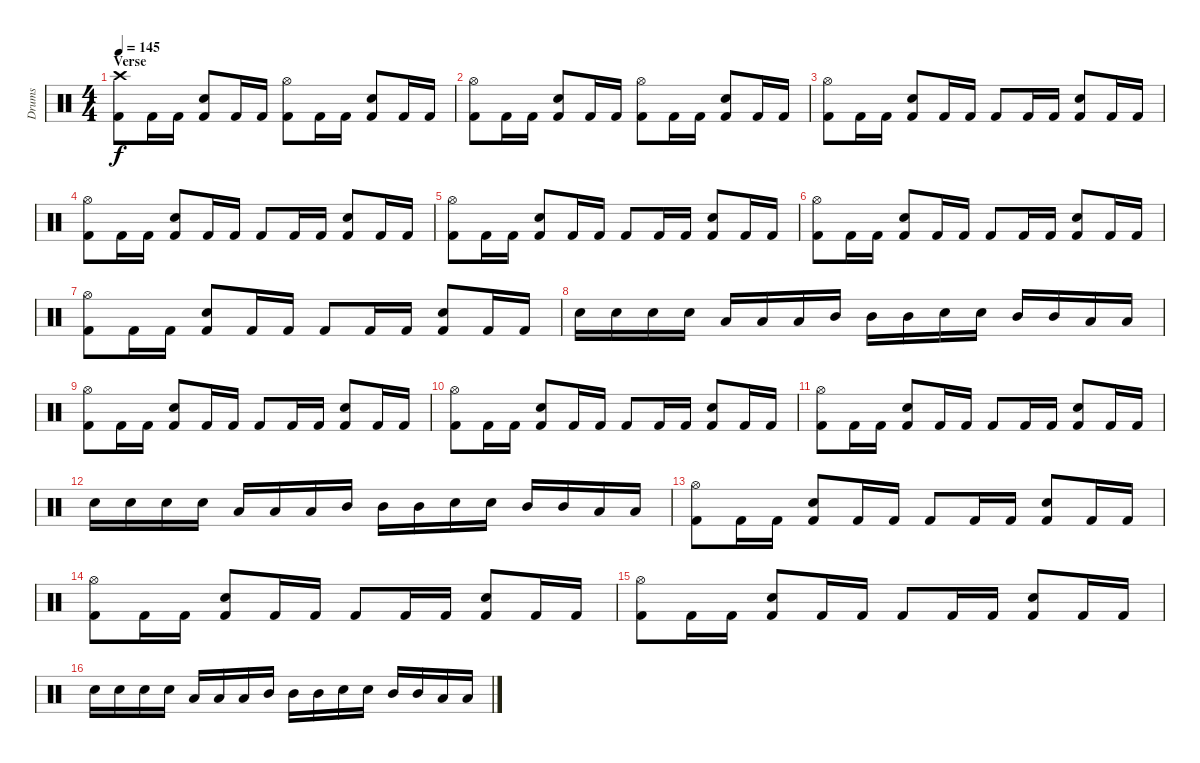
\track ("Drums" "Drums") {instrument percussion}
\staff {score}
\articulation defaults
\ts (4 4)
\section ("" "Verse")
\tempo 145
\clef neutral
\ks c
("Crash high (hit)" "Kick (hit) 2").8{dy f} "Kick (hit) 2".16 "Kick (hit) 2".16 ("Electric Snare (hit)" "Kick (hit) 2").8 "Kick (hit) 2".16 "Kick (hit) 2".16 ("Hi-Hat (open)" "Kick (hit) 2").8 "Kick (hit) 2".16 "Kick (hit) 2".16 ("Electric Snare (hit)" "Kick (hit) 2").8 "Kick (hit) 2".16 "Kick (hit) 2".16 |
("Hi-Hat (open)" "Kick (hit) 2").8 "Kick (hit) 2".16 "Kick (hit) 2".16 ("Electric Snare (hit)" "Kick (hit) 2").8 "Kick (hit) 2".16 "Kick (hit) 2".16 ("Hi-Hat (open)" "Kick (hit) 2").8 "Kick (hit) 2".16 "Kick (hit) 2".16 ("Electric Snare (hit)" "Kick (hit) 2").8 "Kick (hit) 2".16 "Kick (hit) 2".16 |
("Hi-Hat (open)" "Kick (hit) 2").8 "Kick (hit) 2".16 "Kick (hit) 2".16 ("Electric Snare (hit)" "Kick (hit) 2").8 "Kick (hit) 2".16 "Kick (hit) 2".16 "Kick (hit) 2".8 "Kick (hit) 2".16 "Kick (hit) 2".16 ("Electric Snare (hit)" "Kick (hit) 2").8 "Kick (hit) 2".16 "Kick (hit) 2".16 |
("Hi-Hat (open)" "Kick (hit) 2").8 "Kick (hit) 2".16 "Kick (hit) 2".16 ("Electric Snare (hit)" "Kick (hit) 2").8 "Kick (hit) 2".16 "Kick (hit) 2".16 "Kick (hit) 2".8 "Kick (hit) 2".16 "Kick (hit) 2".16 ("Electric Snare (hit)" "Kick (hit) 2").8 "Kick (hit) 2".16 "Kick (hit) 2".16 |
("Hi-Hat (open)" "Kick (hit) 2").8 "Kick (hit) 2".16 "Kick (hit) 2".16 ("Electric Snare (hit)" "Kick (hit) 2").8 "Kick (hit) 2".16 "Kick (hit) 2".16 "Kick (hit) 2".8 "Kick (hit) 2".16 "Kick (hit) 2".16 ("Electric Snare (hit)" "Kick (hit) 2").8 "Kick (hit) 2".16 "Kick (hit) 2".16 |
("Hi-Hat (open)" "Kick (hit) 2").8 "Kick (hit) 2".16 "Kick (hit) 2".16 ("Electric Snare (hit)" "Kick (hit) 2").8 "Kick (hit) 2".16 "Kick (hit) 2".16 "Kick (hit) 2".8 "Kick (hit) 2".16 "Kick (hit) 2".16 ("Electric Snare (hit)" "Kick (hit) 2").8 "Kick (hit) 2".16 "Kick (hit) 2".16 |
("Hi-Hat (open)" "Kick (hit) 2").8 "Kick (hit) 2".16 "Kick (hit) 2".16 ("Electric Snare (hit)" "Kick (hit) 2").8 "Kick (hit) 2".16 "Kick (hit) 2".16 "Kick (hit) 2".8 "Kick (hit) 2".16 "Kick (hit) 2".16 ("Electric Snare (hit)" "Kick (hit) 2").8 "Kick (hit) 2".16 "Kick (hit) 2".16 |
"Electric Snare (hit)".16 "Electric Snare (hit)".16 "Electric Snare (hit)".16 "Electric Snare (hit)".16 "Low Tom (hit)".16 "Low Tom (hit)".16 "Low Tom (hit)".16 "Mid Tom (hit)".16 "Mid Tom (hit)".16 "Mid Tom (hit)".16 "Electric Snare (hit)".16 "Electric Snare (hit)".16 "Mid Tom (hit)".16 "Mid Tom (hit)".16 "Low Tom (hit)".16 "Low Tom (hit)".16 |
("Hi-Hat (open)" "Kick (hit) 2").8 "Kick (hit) 2".16 "Kick (hit) 2".16 ("Electric Snare (hit)" "Kick (hit) 2").8 "Kick (hit) 2".16 "Kick (hit) 2".16 "Kick (hit) 2".8 "Kick (hit) 2".16 "Kick (hit) 2".16 ("Electric Snare (hit)" "Kick (hit) 2").8 "Kick (hit) 2".16 "Kick (hit) 2".16 |
("Hi-Hat (open)" "Kick (hit) 2").8 "Kick (hit) 2".16 "Kick (hit) 2".16 ("Electric Snare (hit)" "Kick (hit) 2").8 "Kick (hit) 2".16 "Kick (hit) 2".16 "Kick (hit) 2".8 "Kick (hit) 2".16 "Kick (hit) 2".16 ("Electric Snare (hit)" "Kick (hit) 2").8 "Kick (hit) 2".16 "Kick (hit) 2".16 |
("Hi-Hat (open)" "Kick (hit) 2").8 "Kick (hit) 2".16 "Kick (hit) 2".16 ("Electric Snare (hit)" "Kick (hit) 2").8 "Kick (hit) 2".16 "Kick (hit) 2".16 "Kick (hit) 2".8 "Kick (hit) 2".16 "Kick (hit) 2".16 ("Electric Snare (hit)" "Kick (hit) 2").8 "Kick (hit) 2".16 "Kick (hit) 2".16 |
"Electric Snare (hit)".16 "Electric Snare (hit)".16 "Electric Snare (hit)".16 "Electric Snare (hit)".16 "Low Tom (hit)".16 "Low Tom (hit)".16 "Low Tom (hit)".16 "Mid Tom (hit)".16 "Mid Tom (hit)".16 "Mid Tom (hit)".16 "Electric Snare (hit)".16 "Electric Snare (hit)".16 "Mid Tom (hit)".16 "Mid Tom (hit)".16 "Low Tom (hit)".16 "Low Tom (hit)".16 |
("Hi-Hat (open)" "Kick (hit) 2").8 "Kick (hit) 2".16 "Kick (hit) 2".16 ("Electric Snare (hit)" "Kick (hit) 2").8 "Kick (hit) 2".16 "Kick (hit) 2".16 "Kick (hit) 2".8 "Kick (hit) 2".16 "Kick (hit) 2".16 ("Electric Snare (hit)" "Kick (hit) 2").8 "Kick (hit) 2".16 "Kick (hit) 2".16 |
("Hi-Hat (open)" "Kick (hit) 2").8 "Kick (hit) 2".16 "Kick (hit) 2".16 ("Electric Snare (hit)" "Kick (hit) 2").8 "Kick (hit) 2".16 "Kick (hit) 2".16 "Kick (hit) 2".8 "Kick (hit) 2".16 "Kick (hit) 2".16 ("Electric Snare (hit)" "Kick (hit) 2").8 "Kick (hit) 2".16 "Kick (hit) 2".16 |
("Hi-Hat (open)" "Kick (hit) 2").8 "Kick (hit) 2".16 "Kick (hit) 2".16 ("Electric Snare (hit)" "Kick (hit) 2").8 "Kick (hit) 2".16 "Kick (hit) 2".16 "Kick (hit) 2".8 "Kick (hit) 2".16 "Kick (hit) 2".16 ("Electric Snare (hit)" "Kick (hit) 2").8 "Kick (hit) 2".16 "Kick (hit) 2".16 |
"Electric Snare (hit)".16 "Electric Snare (hit)".16 "Electric Snare (hit)".16 "Electric Snare (hit)".16 "Low Tom (hit)".16 "Low Tom (hit)".16 "Low Tom (hit)".16 "Mid Tom (hit)".16 "Mid Tom (hit)".16 "Mid Tom (hit)".16 "Electric Snare (hit)".16 "Electric Snare (hit)".16 "Mid Tom (hit)".16 "Mid Tom (hit)".16 "Low Tom (hit)".16 "Low Tom (hit)".16
